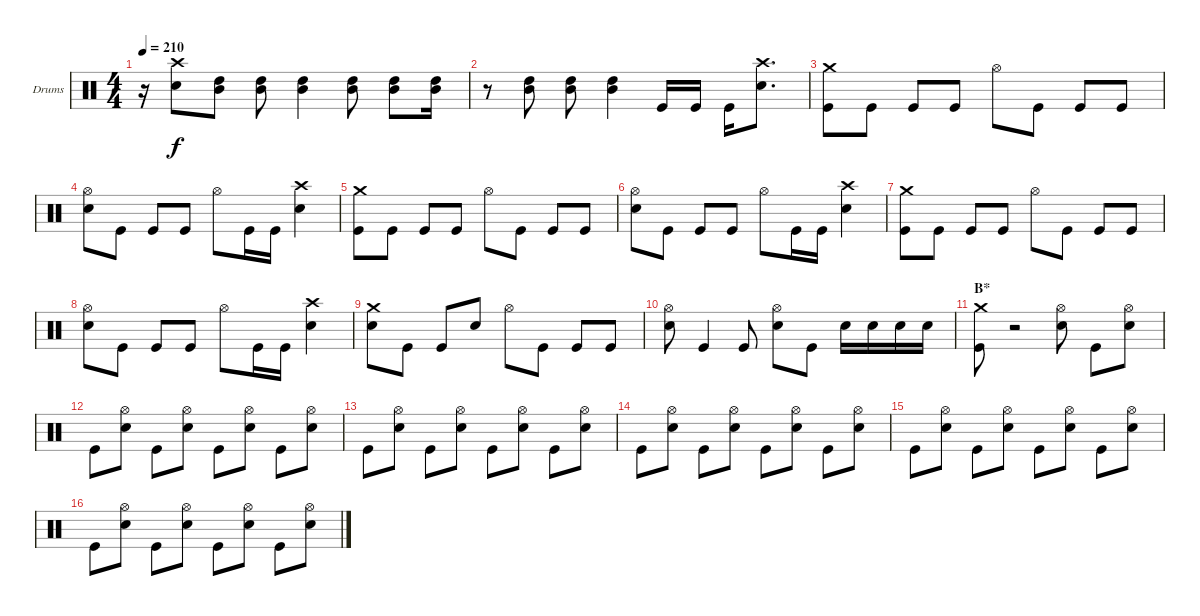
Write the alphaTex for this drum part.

\bracketExtendMode groupsimilarinstruments
\firstSystemTrackNameOrientation horizontal
\otherSystemsTrackNameOrientation horizontal
\track ("Drumkit" "Drums") {instrument percussion}
\staff {score}
\articulation defaults
\ts (4 4)
\tempo 210
\clef neutral
\ks c
r.16{dy f} ("Crash high (hit)" "Snare (hit) 2").8 ("High Tom (hit)" "Mid Tom (hit)").8 ("High Tom (hit)" "Mid Tom (hit)").8 ("High Tom (hit)" "Mid Tom (hit)").4 ("High Tom (hit)" "Mid Tom (hit)").8 ("High Tom (hit)" "Mid Tom (hit)").8 ("High Tom (hit)" "Mid Tom (hit)").16 |
r.8 ("High Tom (hit)" "Mid Tom (hit)").8 ("High Tom (hit)" "Mid Tom (hit)").8 ("High Tom (hit)" "Mid Tom (hit)").4 "Kick (hit)".16 "Kick (hit)".16 "Kick (hit)".16 ("Crash high (hit)" "Snare (hit) 2").8{d} |
("Crash medium (hit)" "Kick (hit)").8 "Kick (hit)".8 "Kick (hit)".8 "Kick (hit)".8 "Hi-Hat (open)".8 "Kick (hit)".8 "Kick (hit)".8 "Kick (hit)".8 |
("Hi-Hat (open)" "Snare (hit) 2").8 "Kick (hit)".8 "Kick (hit)".8 "Kick (hit)".8 "Hi-Hat (open)".8 "Kick (hit)".16 "Kick (hit)".16 ("Crash high (hit)" "Snare (hit) 2").4 |
("Crash medium (hit)" "Kick (hit)").8 "Kick (hit)".8 "Kick (hit)".8 "Kick (hit)".8 "Hi-Hat (open)".8 "Kick (hit)".8 "Kick (hit)".8 "Kick (hit)".8 |
("Hi-Hat (open)" "Snare (hit) 2").8 "Kick (hit)".8 "Kick (hit)".8 "Kick (hit)".8 "Hi-Hat (open)".8 "Kick (hit)".16 "Kick (hit)".16 ("Crash high (hit)" "Snare (hit) 2").4 |
("Crash medium (hit)" "Kick (hit)").8 "Kick (hit)".8 "Kick (hit)".8 "Kick (hit)".8 "Hi-Hat (open)".8 "Kick (hit)".8 "Kick (hit)".8 "Kick (hit)".8 |
("Hi-Hat (open)" "Snare (hit) 2").8 "Kick (hit)".8 "Kick (hit)".8 "Kick (hit)".8 "Hi-Hat (open)".8 "Kick (hit)".16 "Kick (hit)".16 ("Crash high (hit)" "Snare (hit) 2").4 |
("Crash medium (hit)" "Snare (hit) 2").8 "Kick (hit)".8 "Kick (hit)".8 "Snare (hit) 2".8 "Hi-Hat (open)".8 "Kick (hit)".8 "Kick (hit)".8 "Kick (hit)".8 |
("Hi-Hat (open)" "Snare (hit) 2").8 "Kick (hit)".4 "Kick (hit)".8 ("Hi-Hat (open)" "Snare (hit) 2").8 "Kick (hit)".8 "Snare (hit) 2".16 "Snare (hit) 2".16 "Snare (hit) 2".16 "Snare (hit) 2".16 |
\section ("" "B*")
("Crash medium (hit)" "Kick (hit)").8 r.2 ("Hi-Hat (open)" "Snare (hit) 2").8 "Kick (hit)".8 ("Hi-Hat (open)" "Snare (hit) 2").8 |
"Kick (hit)".8 ("Hi-Hat (open)" "Snare (hit) 2").8 "Kick (hit)".8 ("Hi-Hat (open)" "Snare (hit) 2").8 "Kick (hit)".8 ("Hi-Hat (open)" "Snare (hit) 2").8 "Kick (hit)".8 ("Hi-Hat (open)" "Snare (hit) 2").8 |
"Kick (hit)".8 ("Hi-Hat (open)" "Snare (hit) 2").8 "Kick (hit)".8 ("Hi-Hat (open)" "Snare (hit) 2").8 "Kick (hit)".8 ("Hi-Hat (open)" "Snare (hit) 2").8 "Kick (hit)".8 ("Hi-Hat (open)" "Snare (hit) 2").8 |
"Kick (hit)".8 ("Hi-Hat (open)" "Snare (hit) 2").8 "Kick (hit)".8 ("Hi-Hat (open)" "Snare (hit) 2").8 "Kick (hit)".8 ("Hi-Hat (open)" "Snare (hit) 2").8 "Kick (hit)".8 ("Hi-Hat (open)" "Snare (hit) 2").8 |
"Kick (hit)".8 ("Hi-Hat (open)" "Snare (hit) 2").8 "Kick (hit)".8 ("Hi-Hat (open)" "Snare (hit) 2").8 "Kick (hit)".8 ("Hi-Hat (open)" "Snare (hit) 2").8 "Kick (hit)".8 ("Hi-Hat (open)" "Snare (hit) 2").8 |
"Kick (hit)".8 ("Hi-Hat (open)" "Snare (hit) 2").8 "Kick (hit)".8 ("Hi-Hat (open)" "Snare (hit) 2").8 "Kick (hit)".8 ("Hi-Hat (open)" "Snare (hit) 2").8 "Kick (hit)".8 ("Hi-Hat (open)" "Snare (hit) 2").8
